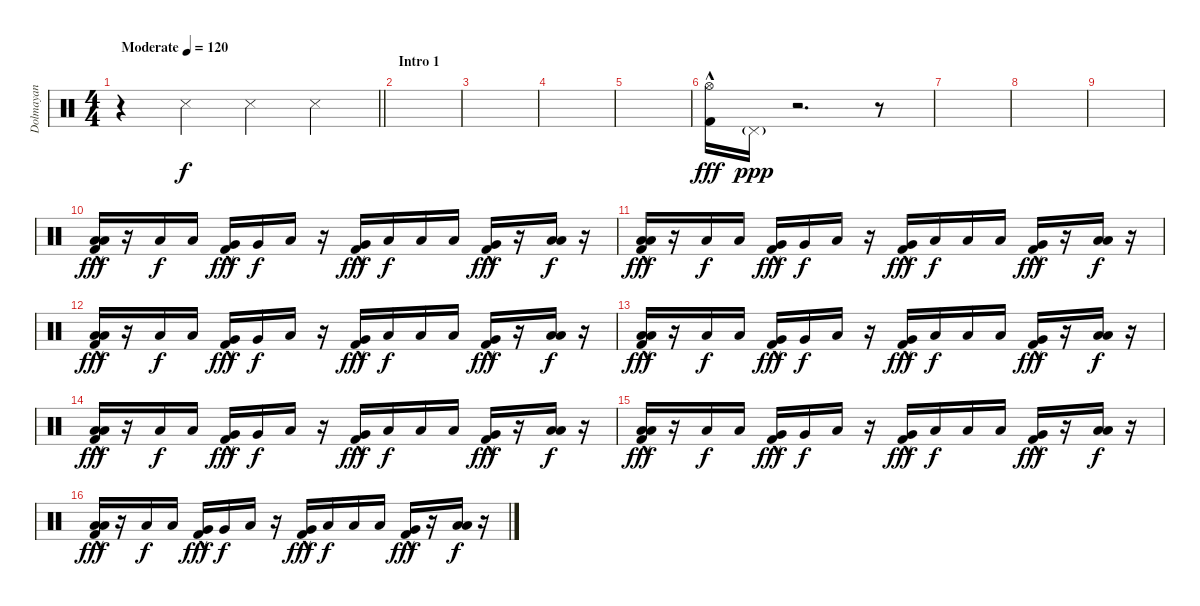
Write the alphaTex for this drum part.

\track ("Dolmayan" "Dolmayan") {instrument percussion}
\staff {score}
\articulation defaults
\ts (4 4)
\tempo (120 "Moderate")
\clef neutral
\barLineRight lightlight
\ks c
r.4{dy f} "Snare (side stick) 3".4 "Snare (side stick) 3".4 "Snare (side stick) 3".4 |
\section ("" "Intro 1")
|
|
|
|
("Hi-Hat (open)" "Kick (hit) 2"{hac}).16{dy fff} "Pedal Hi-Hat (hit)"{g}.16{dy ppp} r.2{d} r.8 |
|
|
|
("Low Tom (hit)" "Low Floor Tom (hit)" "Kick (hit) 2"{hac}).16{dy fff} r.16 "Low Floor Tom (hit)".16{dy f} "Low Tom (hit)".16 ("Very Low Tom (hit)" "Kick (hit) 2"{hac}).16{dy fff} "Very Low Tom (hit)".16{dy f} "Low Tom (hit)".16 r.16 ("Very Low Tom (hit)" "Kick (hit) 2"{hac}).16{dy fff} "Low Tom (hit)".16{dy f} "Low Floor Tom (hit)".16 "Low Floor Tom (hit)".16 ("Very Low Tom (hit)" "Kick (hit) 2"{hac}).16{dy fff} r.16 ("Low Tom (hit)" "Low Floor Tom (hit)").16{dy f} r.16 |
("Low Tom (hit)" "Low Floor Tom (hit)" "Kick (hit) 2"{hac}).16{dy fff} r.16 "Low Floor Tom (hit)".16{dy f} "Low Tom (hit)".16 ("Very Low Tom (hit)" "Kick (hit) 2"{hac}).16{dy fff} "Very Low Tom (hit)".16{dy f} "Low Tom (hit)".16 r.16 ("Very Low Tom (hit)" "Kick (hit) 2"{hac}).16{dy fff} "Low Tom (hit)".16{dy f} "Low Floor Tom (hit)".16 "Low Floor Tom (hit)".16 ("Very Low Tom (hit)" "Kick (hit) 2"{hac}).16{dy fff} r.16 ("Low Tom (hit)" "Low Floor Tom (hit)").16{dy f} r.16 |
("Low Tom (hit)" "Low Floor Tom (hit)" "Kick (hit) 2"{hac}).16{dy fff} r.16 "Low Floor Tom (hit)".16{dy f} "Low Tom (hit)".16 ("Very Low Tom (hit)" "Kick (hit) 2"{hac}).16{dy fff} "Very Low Tom (hit)".16{dy f} "Low Tom (hit)".16 r.16 ("Very Low Tom (hit)" "Kick (hit) 2"{hac}).16{dy fff} "Low Tom (hit)".16{dy f} "Low Floor Tom (hit)".16 "Low Floor Tom (hit)".16 ("Very Low Tom (hit)" "Kick (hit) 2"{hac}).16{dy fff} r.16 ("Low Tom (hit)" "Low Floor Tom (hit)").16{dy f} r.16 |
("Low Tom (hit)" "Low Floor Tom (hit)" "Kick (hit) 2"{hac}).16{dy fff} r.16 "Low Floor Tom (hit)".16{dy f} "Low Tom (hit)".16 ("Very Low Tom (hit)" "Kick (hit) 2"{hac}).16{dy fff} "Very Low Tom (hit)".16{dy f} "Low Tom (hit)".16 r.16 ("Very Low Tom (hit)" "Kick (hit) 2"{hac}).16{dy fff} "Low Tom (hit)".16{dy f} "Low Floor Tom (hit)".16 "Low Floor Tom (hit)".16 ("Very Low Tom (hit)" "Kick (hit) 2"{hac}).16{dy fff} r.16 ("Low Tom (hit)" "Low Floor Tom (hit)").16{dy f} r.16 |
("Low Tom (hit)" "Low Floor Tom (hit)" "Kick (hit) 2"{hac}).16{dy fff} r.16 "Low Floor Tom (hit)".16{dy f} "Low Tom (hit)".16 ("Very Low Tom (hit)" "Kick (hit) 2"{hac}).16{dy fff} "Very Low Tom (hit)".16{dy f} "Low Tom (hit)".16 r.16 ("Very Low Tom (hit)" "Kick (hit) 2"{hac}).16{dy fff} "Low Tom (hit)".16{dy f} "Low Floor Tom (hit)".16 "Low Floor Tom (hit)".16 ("Very Low Tom (hit)" "Kick (hit) 2"{hac}).16{dy fff} r.16 ("Low Tom (hit)" "Low Floor Tom (hit)").16{dy f} r.16 |
("Low Tom (hit)" "Low Floor Tom (hit)" "Kick (hit) 2"{hac}).16{dy fff} r.16 "Low Floor Tom (hit)".16{dy f} "Low Tom (hit)".16 ("Very Low Tom (hit)" "Kick (hit) 2"{hac}).16{dy fff} "Very Low Tom (hit)".16{dy f} "Low Tom (hit)".16 r.16 ("Very Low Tom (hit)" "Kick (hit) 2"{hac}).16{dy fff} "Low Tom (hit)".16{dy f} "Low Floor Tom (hit)".16 "Low Floor Tom (hit)".16 ("Very Low Tom (hit)" "Kick (hit) 2"{hac}).16{dy fff} r.16 ("Low Tom (hit)" "Low Floor Tom (hit)").16{dy f} r.16 |
("Low Tom (hit)" "Low Floor Tom (hit)" "Kick (hit) 2"{hac}).16{dy fff} r.16 "Low Floor Tom (hit)".16{dy f} "Low Tom (hit)".16 ("Very Low Tom (hit)" "Kick (hit) 2"{hac}).16{dy fff} "Very Low Tom (hit)".16{dy f} "Low Tom (hit)".16 r.16 ("Very Low Tom (hit)" "Kick (hit) 2"{hac}).16{dy fff} "Low Tom (hit)".16{dy f} "Low Floor Tom (hit)".16 "Low Floor Tom (hit)".16 ("Very Low Tom (hit)" "Kick (hit) 2"{hac}).16{dy fff} r.16 ("Low Tom (hit)" "Low Floor Tom (hit)").16{dy f} r.16
